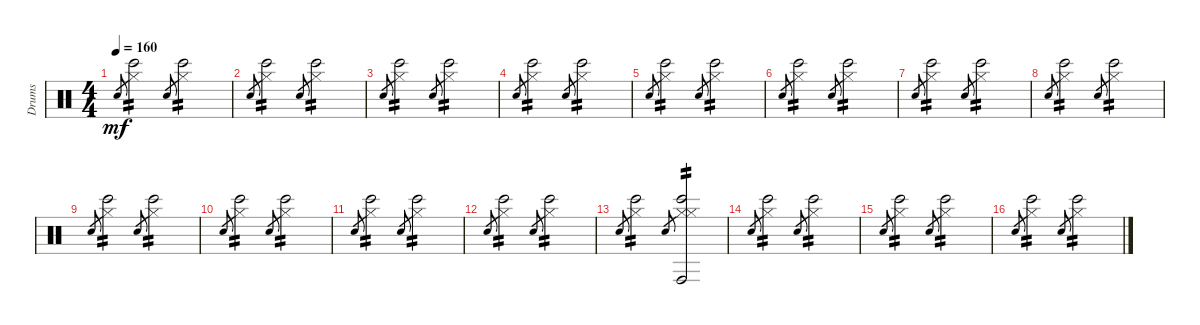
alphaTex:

\track ("Drums" "Drums") {instrument percussion}
\staff {score}
\articulation defaults
\ts (4 4)
\tempo 160
\clef neutral
\ks c "Snare (hit)".8{gr dy mf}
("Hi-Hat (closed)" "Bongo High (hit)").2{tp 2} "Snare (hit)".8{gr} ("Hi-Hat (closed)" "Bongo High (hit)").2{tp 2} |
"Snare (hit)".8{gr} ("Hi-Hat (closed)" "Bongo High (hit)").2{tp 2} "Snare (hit)".8{gr} ("Hi-Hat (closed)" "Bongo High (hit)").2{tp 2} |
"Snare (hit)".8{gr} ("Hi-Hat (closed)" "Bongo High (hit)").2{tp 2} "Snare (hit)".8{gr} ("Hi-Hat (closed)" "Bongo High (hit)").2{tp 2} |
"Snare (hit)".8{gr} ("Hi-Hat (closed)" "Bongo High (hit)").2{tp 2} "Snare (hit)".8{gr} ("Hi-Hat (closed)" "Bongo High (hit)").2{tp 2} |
"Snare (hit)".8{gr} ("Hi-Hat (closed)" "Bongo High (hit)").2{tp 2} "Snare (hit)".8{gr} ("Hi-Hat (closed)" "Bongo High (hit)").2{tp 2} |
"Snare (hit)".8{gr} ("Hi-Hat (closed)" "Bongo High (hit)").2{tp 2} "Snare (hit)".8{gr} ("Hi-Hat (closed)" "Bongo High (hit)").2{tp 2} |
"Snare (hit)".8{gr} ("Hi-Hat (closed)" "Bongo High (hit)").2{tp 2} "Snare (hit)".8{gr} ("Hi-Hat (closed)" "Bongo High (hit)").2{tp 2} |
"Snare (hit)".8{gr} ("Hi-Hat (closed)" "Bongo High (hit)").2{tp 2} "Snare (hit)".8{gr} ("Hi-Hat (closed)" "Bongo High (hit)").2{tp 2} |
"Snare (hit)".8{gr} ("Hi-Hat (closed)" "Bongo High (hit)").2{tp 2} "Snare (hit)".8{gr} ("Hi-Hat (closed)" "Bongo High (hit)").2{tp 2} |
"Snare (hit)".8{gr} ("Hi-Hat (closed)" "Bongo High (hit)").2{tp 2} "Snare (hit)".8{gr} ("Hi-Hat (closed)" "Bongo High (hit)").2{tp 2} |
"Snare (hit)".8{gr} ("Hi-Hat (closed)" "Bongo High (hit)").2{tp 2} "Snare (hit)".8{gr} ("Hi-Hat (closed)" "Bongo High (hit)").2{tp 2} |
"Snare (hit)".8{gr} ("Hi-Hat (closed)" "Bongo High (hit)").2{tp 2} "Snare (hit)".8{gr} ("Hi-Hat (closed)" "Bongo High (hit)").2{tp 2} |
"Snare (hit)".8{gr} ("Hi-Hat (closed)" "Bongo High (hit)").2{tp 2} "Snare (hit)".8{gr} ("Hi-Hat (closed)" "Bongo High (hit)" "Hi-Hat (closed)" "Conga high (hit)").2{tp 2} |
"Snare (hit)".8{gr} ("Hi-Hat (closed)" "Bongo High (hit)").2{tp 2} "Snare (hit)".8{gr} ("Hi-Hat (closed)" "Bongo High (hit)").2{tp 2} |
"Snare (hit)".8{gr} ("Hi-Hat (closed)" "Bongo High (hit)").2{tp 2} "Snare (hit)".8{gr} ("Hi-Hat (closed)" "Bongo High (hit)").2{tp 2} |
"Snare (hit)".8{gr} ("Hi-Hat (closed)" "Bongo High (hit)").2{tp 2} "Snare (hit)".8{gr} ("Hi-Hat (closed)" "Bongo High (hit)").2{tp 2}
